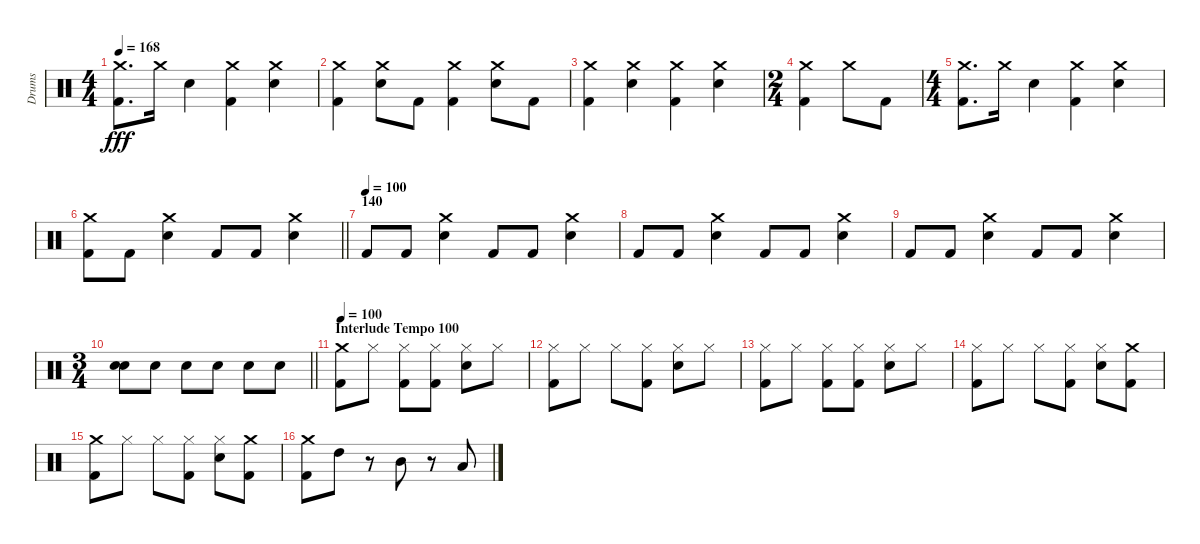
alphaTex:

\track ("Drums" "Drums") {instrument percussion}
\staff {score}
\articulation defaults
\ts (4 4)
\tempo 168
\clef neutral
\ks c
("Kick (hit) 2" "Crash medium (hit)").8{d dy fff} "Crash medium (hit)".16 "Snare (hit) 2".4 ("Kick (hit) 2" "Crash medium (hit)").4 ("Snare (hit) 2" "Crash medium (hit)").4 |
("Kick (hit) 2" "Crash medium (hit)").4 ("Snare (hit) 2" "Crash medium (hit)").8 "Kick (hit) 2".8 ("Kick (hit) 2" "Crash medium (hit)").4 ("Snare (hit) 2" "Crash medium (hit)").8 "Kick (hit) 2".8 |
("Kick (hit) 2" "Crash medium (hit)").4 ("Snare (hit) 2" "Crash medium (hit)").4 ("Kick (hit) 2" "Crash medium (hit)").4 ("Snare (hit) 2" "Crash medium (hit)").4 |
\ts (2 4)
("Kick (hit) 2" "Crash medium (hit)").4 "Crash medium (hit)".8 "Kick (hit) 2".8 |
\ts (4 4)
("Kick (hit) 2" "Crash medium (hit)").8{d} "Crash medium (hit)".16 "Snare (hit) 2".4 ("Kick (hit) 2" "Crash medium (hit)").4 ("Snare (hit) 2" "Crash medium (hit)").4 |
\barLineRight lightlight
("Kick (hit) 2" "Crash medium (hit)").8 "Kick (hit) 2".8 ("Snare (hit) 2" "Crash medium (hit)").4 "Kick (hit) 2".8 "Kick (hit) 2".8 ("Crash medium (hit)" "Snare (hit) 2").4 |
\section ("" "140")
\tempo 140
\tempo (100)
"Kick (hit) 2".8 "Kick (hit) 2".8 ("Snare (hit) 2" "Crash medium (hit)").4 "Kick (hit) 2".8 "Kick (hit) 2".8 ("Crash medium (hit)" "Snare (hit) 2").4 |
"Kick (hit) 2".8 "Kick (hit) 2".8 ("Snare (hit) 2" "Crash medium (hit)").4 "Kick (hit) 2".8 "Kick (hit) 2".8 ("Crash medium (hit)" "Snare (hit) 2").4 |
"Kick (hit) 2".8 "Kick (hit) 2".8 ("Snare (hit) 2" "Crash medium (hit)").4 "Kick (hit) 2".8 "Kick (hit) 2".8 ("Crash medium (hit)" "Snare (hit) 2").4 |
\ts (3 4)
\barLineRight lightlight
("Snare (hit) 2" "Snare (hit) 2").8 "Snare (hit) 2".8 "Snare (hit) 2".8 "Snare (hit) 2".8 "Snare (hit) 2".8 "Snare (hit) 2".8 |
\section ("" "Interlude Tempo 100")
\tempo 100
("Crash medium (hit)" "Kick (hit) 2").8 "Hi-Hat (closed)".8 ("Kick (hit) 2" "Hi-Hat (closed)").8 ("Kick (hit) 2" "Hi-Hat (closed)").8 ("Snare (hit) 2" "Hi-Hat (closed)").8 "Hi-Hat (closed)".8 |
("Hi-Hat (closed)" "Kick (hit) 2").8 "Hi-Hat (closed)".8 "Hi-Hat (closed)".8 ("Kick (hit) 2" "Hi-Hat (closed)").8 ("Hi-Hat (closed)" "Snare (hit) 2").8 "Hi-Hat (closed)".8 |
("Hi-Hat (closed)" "Kick (hit) 2").8 "Hi-Hat (closed)".8 ("Kick (hit) 2" "Hi-Hat (closed)").8 ("Kick (hit) 2" "Hi-Hat (closed)").8 ("Hi-Hat (closed)" "Snare (hit) 2").8 "Hi-Hat (closed)".8 |
("Hi-Hat (closed)" "Kick (hit) 2").8 "Hi-Hat (closed)".8 "Hi-Hat (closed)".8 ("Kick (hit) 2" "Hi-Hat (closed)").8 ("Hi-Hat (closed)" "Snare (hit) 2").8 ("Crash medium (hit)" "Kick (hit) 2").8 |
("Kick (hit) 2" "Crash medium (hit)").8 "Hi-Hat (closed)".8 "Hi-Hat (closed)".8 ("Kick (hit) 2" "Hi-Hat (closed)").8 ("Snare (hit) 2" "Hi-Hat (closed)").8 ("Kick (hit) 2" "Crash medium (hit)").8 |
("Crash medium (hit)" "Kick (hit) 2").8 "High Tom (hit)".8{balance 16} r.8 "Mid Tom (hit)".8{balance 8} r.8 "Low Tom (hit)".8{balance 0}
